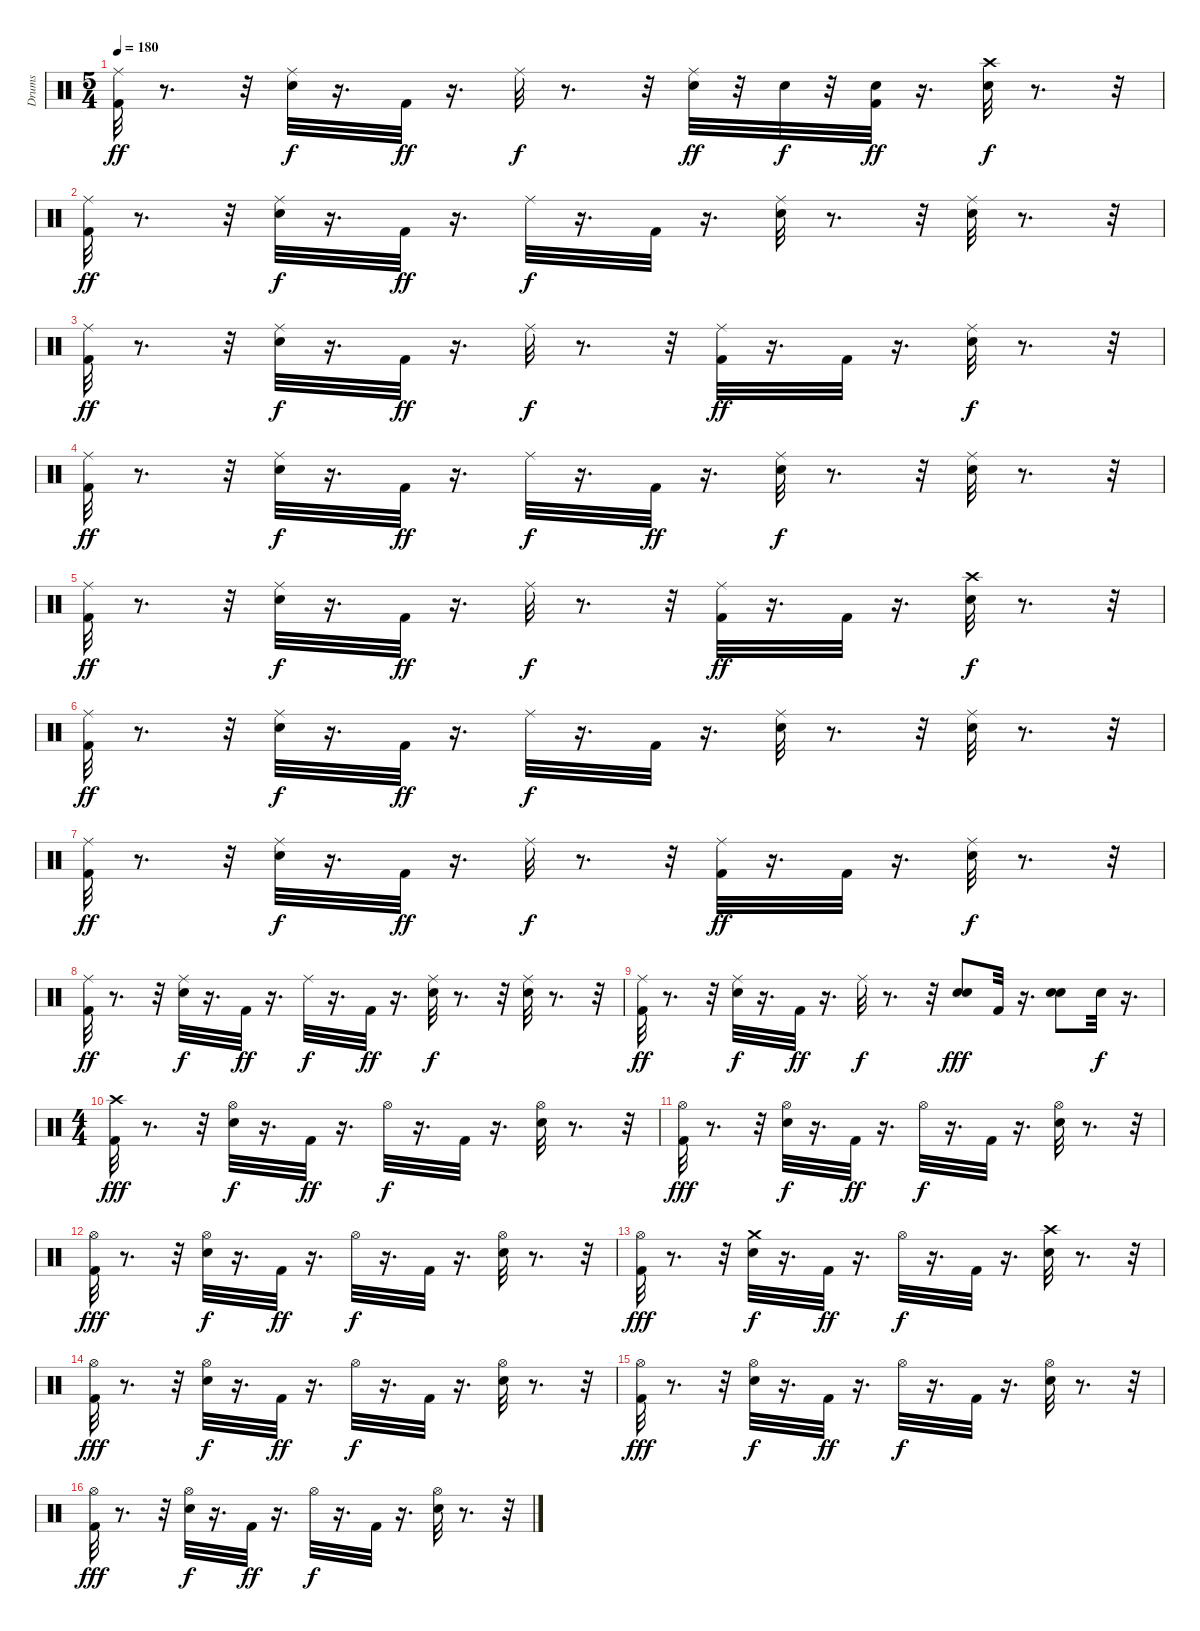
\track ("Drums" "Drums") {instrument percussion}
\staff {score}
\articulation defaults
\ts (5 4)
\tempo 180
\clef neutral
\ks c
("Ride (middle)" "Kick (hit) 2").32{dy ff} r.8{d} r.32 ("Ride (middle)" "Snare (hit) 2").32{dy f} r.16{d} "Kick (hit) 2".32{dy ff} r.16{d} "Ride (middle)".32{dy f} r.8{d} r.32 ("Snare (hit) 2" "Ride (middle)").32{dy ff} r.32 "Snare (hit) 2".32{dy f} r.32 ("Snare (hit) 2" "Kick (hit) 2").32{dy ff} r.16{d} ("Crash high (hit)" "Snare (hit) 2").32{dy f} r.8{d} r.32 |
("Ride (middle)" "Kick (hit) 2").32{dy ff} r.8{d} r.32 ("Ride (middle)" "Snare (hit) 2").32{dy f} r.16{d} "Kick (hit) 2".32{dy ff} r.16{d} "Ride (middle)".32{dy f} r.16{d} "Kick (hit) 2".32 r.16{d} ("Ride (middle)" "Snare (hit) 2").32 r.8{d} r.32 ("Ride (middle)" "Snare (hit) 2").32 r.8{d} r.32 |
("Ride (middle)" "Kick (hit) 2").32{dy ff} r.8{d} r.32 ("Ride (middle)" "Snare (hit) 2").32{dy f} r.16{d} "Kick (hit) 2".32{dy ff} r.16{d} "Ride (middle)".32{dy f} r.8{d} r.32 ("Kick (hit) 2" "Ride (middle)").32{dy ff} r.16{d} "Kick (hit) 2".32 r.16{d} ("Ride (middle)" "Snare (hit) 2").32{dy f} r.8{d} r.32 |
("Ride (middle)" "Kick (hit) 2").32{dy ff} r.8{d} r.32 ("Ride (middle)" "Snare (hit) 2").32{dy f} r.16{d} "Kick (hit) 2".32{dy ff} r.16{d} "Ride (middle)".32{dy f} r.16{d} "Kick (hit) 2".32{dy ff} r.16{d} ("Ride (middle)" "Snare (hit) 2").32{dy f} r.8{d} r.32 ("Ride (middle)" "Snare (hit) 2").32 r.8{d} r.32 |
("Ride (middle)" "Kick (hit) 2").32{dy ff} r.8{d} r.32 ("Ride (middle)" "Snare (hit) 2").32{dy f} r.16{d} "Kick (hit) 2".32{dy ff} r.16{d} "Ride (middle)".32{dy f} r.8{d} r.32 ("Kick (hit) 2" "Ride (middle)").32{dy ff} r.16{d} "Kick (hit) 2".32 r.16{d} ("Crash high (hit)" "Snare (hit) 2").32{dy f} r.8{d} r.32 |
("Ride (middle)" "Kick (hit) 2").32{dy ff} r.8{d} r.32 ("Ride (middle)" "Snare (hit) 2").32{dy f} r.16{d} "Kick (hit) 2".32{dy ff} r.16{d} "Ride (middle)".32{dy f} r.16{d} "Kick (hit) 2".32 r.16{d} ("Ride (middle)" "Snare (hit) 2").32 r.8{d} r.32 ("Ride (middle)" "Snare (hit) 2").32 r.8{d} r.32 |
("Ride (middle)" "Kick (hit) 2").32{dy ff} r.8{d} r.32 ("Ride (middle)" "Snare (hit) 2").32{dy f} r.16{d} "Kick (hit) 2".32{dy ff} r.16{d} "Ride (middle)".32{dy f} r.8{d} r.32 ("Kick (hit) 2" "Ride (middle)").32{dy ff} r.16{d} "Kick (hit) 2".32 r.16{d} ("Ride (middle)" "Snare (hit) 2").32{dy f} r.8{d} r.32 |
("Ride (middle)" "Kick (hit) 2").32{dy ff} r.8{d} r.32 ("Ride (middle)" "Snare (hit) 2").32{dy f} r.16{d} "Kick (hit) 2".32{dy ff} r.16{d} "Ride (middle)".32{dy f} r.16{d} "Kick (hit) 2".32{dy ff} r.16{d} ("Ride (middle)" "Snare (hit) 2").32{dy f} r.8{d} r.32 ("Ride (middle)" "Snare (hit) 2").32 r.8{d} r.32 |
("Ride (middle)" "Kick (hit) 2").32{dy ff} r.8{d} r.32 ("Ride (middle)" "Snare (hit) 2").32{dy f} r.16{d} "Kick (hit) 2".32{dy ff} r.16{d} "Ride (middle)".32{dy f} r.8{d} r.32 ("Snare (hit) 2" "Snare (hit) 2").8{dy fff} "Kick (hit) 2".32 r.16{d} ("Snare (hit) 2" "Snare (hit) 2").8 "Snare (hit) 2".32{dy f} r.16{d} |
\ts (4 4)
("Kick (hit) 2" "Crash high (hit)").32{dy fff} r.8{d} r.32 ("Hi-Hat (open)" "Snare (hit) 2").32{dy f} r.16{d} "Kick (hit) 2".32{dy ff} r.16{d} "Hi-Hat (open)".32{dy f} r.16{d} "Kick (hit) 2".32 r.16{d} ("Hi-Hat (open)" "Snare (hit) 2").32 r.8{d} r.32 |
("Hi-Hat (open)" "Kick (hit) 2").32{dy fff} r.8{d} r.32 ("Hi-Hat (open)" "Snare (hit) 2").32{dy f} r.16{d} "Kick (hit) 2".32{dy ff} r.16{d} "Hi-Hat (open)".32{dy f} r.16{d} "Kick (hit) 2".32 r.16{d} ("Hi-Hat (open)" "Snare (hit) 2").32 r.8{d} r.32 |
("Hi-Hat (open)" "Kick (hit) 2").32{dy fff} r.8{d} r.32 ("Hi-Hat (open)" "Snare (hit) 2").32{dy f} r.16{d} "Kick (hit) 2".32{dy ff} r.16{d} "Hi-Hat (open)".32{dy f} r.16{d} "Kick (hit) 2".32 r.16{d} ("Hi-Hat (open)" "Snare (hit) 2").32 r.8{d} r.32 |
("Hi-Hat (open)" "Kick (hit) 2").32{dy fff} r.8{d} r.32 ("Crash medium (hit)" "Snare (hit) 2").32{dy f} r.16{d} "Kick (hit) 2".32{dy ff} r.16{d} "Hi-Hat (open)".32{dy f} r.16{d} "Kick (hit) 2".32 r.16{d} ("Crash high (hit)" "Snare (hit) 2").32 r.8{d} r.32 |
("Hi-Hat (open)" "Kick (hit) 2").32{dy fff} r.8{d} r.32 ("Hi-Hat (open)" "Snare (hit) 2").32{dy f} r.16{d} "Kick (hit) 2".32{dy ff} r.16{d} "Hi-Hat (open)".32{dy f} r.16{d} "Kick (hit) 2".32 r.16{d} ("Hi-Hat (open)" "Snare (hit) 2").32 r.8{d} r.32 |
("Hi-Hat (open)" "Kick (hit) 2").32{dy fff} r.8{d} r.32 ("Hi-Hat (open)" "Snare (hit) 2").32{dy f} r.16{d} "Kick (hit) 2".32{dy ff} r.16{d} "Hi-Hat (open)".32{dy f} r.16{d} "Kick (hit) 2".32 r.16{d} ("Hi-Hat (open)" "Snare (hit) 2").32 r.8{d} r.32 |
("Hi-Hat (open)" "Kick (hit) 2").32{dy fff} r.8{d} r.32 ("Hi-Hat (open)" "Snare (hit) 2").32{dy f} r.16{d} "Kick (hit) 2".32{dy ff} r.16{d} "Hi-Hat (open)".32{dy f} r.16{d} "Kick (hit) 2".32 r.16{d} ("Hi-Hat (open)" "Snare (hit) 2").32 r.8{d} r.32
